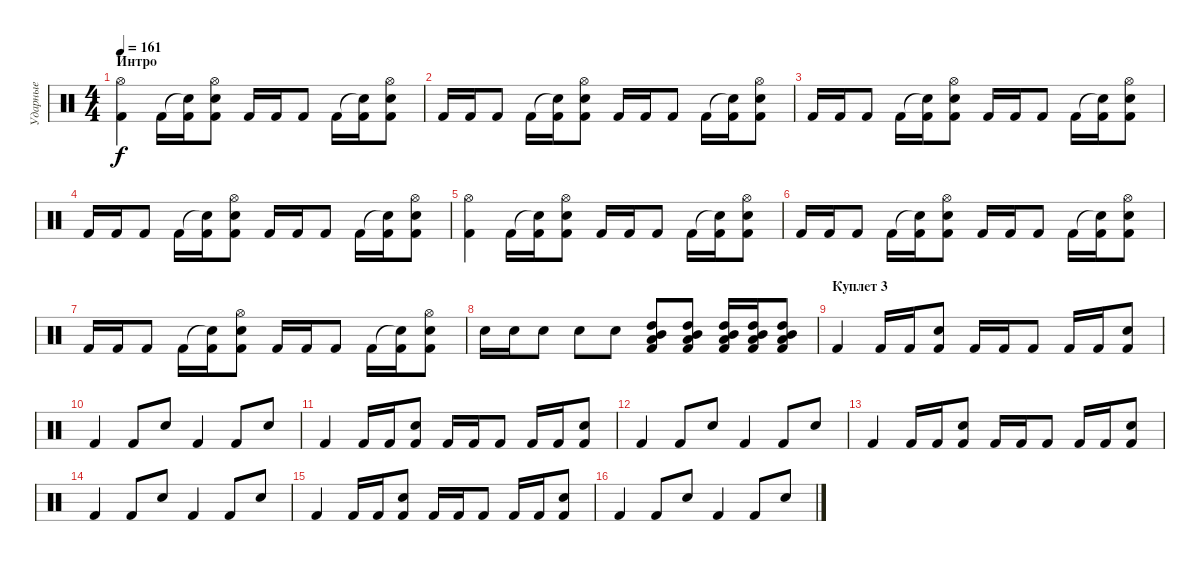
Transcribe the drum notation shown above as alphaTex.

\track ("Ударные" "Ударные") {instrument percussion}
\staff {score}
\articulation defaults
\ts (4 4)
\section ("" "Интро")
\tempo 161
\clef neutral
\ks c
("Hi-Hat (open)" "Kick (hit) 2").4{dy f} "Kick (hit) 2".16 ("Snare (hit)"{t} "Kick (hit) 2").16 ("Hi-Hat (open)" "Snare (hit) 2" "Kick (hit) 2").8 "Kick (hit) 2".16 "Kick (hit) 2".16 "Kick (hit) 2".8 "Kick (hit) 2".16 ("Snare (hit)"{t} "Kick (hit) 2").16 ("Hi-Hat (open)" "Snare (hit) 2" "Kick (hit) 2").8 |
"Kick (hit) 2".16 "Kick (hit) 2".16 "Kick (hit) 2".8 "Kick (hit) 2".16 ("Snare (hit)"{t} "Kick (hit) 2").16 ("Hi-Hat (open)" "Snare (hit) 2" "Kick (hit) 2").8 "Kick (hit) 2".16 "Kick (hit) 2".16 "Kick (hit) 2".8 "Kick (hit) 2".16 ("Snare (hit)"{t} "Kick (hit) 2").16 ("Hi-Hat (open)" "Snare (hit) 2" "Kick (hit) 2").8 |
"Kick (hit) 2".16 "Kick (hit) 2".16 "Kick (hit) 2".8 "Kick (hit) 2".16 ("Snare (hit)"{t} "Kick (hit) 2").16 ("Hi-Hat (open)" "Snare (hit) 2" "Kick (hit) 2").8 "Kick (hit) 2".16 "Kick (hit) 2".16 "Kick (hit) 2".8 "Kick (hit) 2".16 ("Snare (hit)"{t} "Kick (hit) 2").16 ("Hi-Hat (open)" "Snare (hit) 2" "Kick (hit) 2").8 |
"Kick (hit) 2".16 "Kick (hit) 2".16 "Kick (hit) 2".8 "Kick (hit) 2".16 ("Snare (hit)"{t} "Kick (hit) 2").16 ("Hi-Hat (open)" "Snare (hit) 2" "Kick (hit) 2").8 "Kick (hit) 2".16 "Kick (hit) 2".16 "Kick (hit) 2".8 "Kick (hit) 2".16 ("Snare (hit)"{t} "Kick (hit) 2").16 ("Hi-Hat (open)" "Snare (hit) 2" "Kick (hit) 2").8 |
("Hi-Hat (open)" "Kick (hit) 2").4 "Kick (hit) 2".16 ("Snare (hit)"{t} "Kick (hit) 2").16 ("Hi-Hat (open)" "Snare (hit) 2" "Kick (hit) 2").8 "Kick (hit) 2".16 "Kick (hit) 2".16 "Kick (hit) 2".8 "Kick (hit) 2".16 ("Snare (hit)"{t} "Kick (hit) 2").16 ("Hi-Hat (open)" "Snare (hit) 2" "Kick (hit) 2").8 |
"Kick (hit) 2".16 "Kick (hit) 2".16 "Kick (hit) 2".8 "Kick (hit) 2".16 ("Snare (hit)"{t} "Kick (hit) 2").16 ("Hi-Hat (open)" "Snare (hit) 2" "Kick (hit) 2").8 "Kick (hit) 2".16 "Kick (hit) 2".16 "Kick (hit) 2".8 "Kick (hit) 2".16 ("Snare (hit)"{t} "Kick (hit) 2").16 ("Hi-Hat (open)" "Snare (hit) 2" "Kick (hit) 2").8 |
"Kick (hit) 2".16 "Kick (hit) 2".16 "Kick (hit) 2".8 "Kick (hit) 2".16 ("Snare (hit)"{t} "Kick (hit) 2").16 ("Hi-Hat (open)" "Snare (hit) 2" "Kick (hit) 2").8 "Kick (hit) 2".16 "Kick (hit) 2".16 "Kick (hit) 2".8 "Kick (hit) 2".16 ("Snare (hit)"{t} "Kick (hit) 2").16 ("Hi-Hat (open)" "Snare (hit) 2" "Kick (hit) 2").8 |
"Snare (hit) 2".16 "Snare (hit) 2".16 "Snare (hit) 2".8 "Snare (hit) 2".8 "Snare (hit) 2".8 ("Mid Tom (hit)" "Low Tom (hit)" "Kick (hit) 2" "High Tom (hit)").8 ("Mid Tom (hit)" "Low Tom (hit)" "Kick (hit) 2" "High Tom (hit)").8 ("Mid Tom (hit)" "Low Tom (hit)" "Kick (hit) 2" "High Tom (hit)").16 ("Mid Tom (hit)" "Low Tom (hit)" "Kick (hit) 2" "High Tom (hit)").16 ("Mid Tom (hit)" "Low Tom (hit)" "Kick (hit) 2" "High Tom (hit)").8 |
\section ("" "Куплет 3")
"Kick (hit) 2".4 "Kick (hit) 2".16 "Kick (hit) 2".16 ("Snare (hit) 2" "Kick (hit) 2").8 "Kick (hit) 2".16 "Kick (hit) 2".16 "Kick (hit) 2".8 "Kick (hit) 2".16 "Kick (hit) 2".16 ("Snare (hit) 2" "Kick (hit) 2").8 |
"Kick (hit) 2".4 "Kick (hit) 2".8 "Snare (hit) 2".8 "Kick (hit) 2".4 "Kick (hit) 2".8 "Snare (hit) 2".8 |
"Kick (hit) 2".4 "Kick (hit) 2".16 "Kick (hit) 2".16 ("Snare (hit) 2" "Kick (hit) 2").8 "Kick (hit) 2".16 "Kick (hit) 2".16 "Kick (hit) 2".8 "Kick (hit) 2".16 "Kick (hit) 2".16 ("Snare (hit) 2" "Kick (hit) 2").8 |
"Kick (hit) 2".4 "Kick (hit) 2".8 "Snare (hit) 2".8 "Kick (hit) 2".4 "Kick (hit) 2".8 "Snare (hit) 2".8 |
"Kick (hit) 2".4 "Kick (hit) 2".16 "Kick (hit) 2".16 ("Snare (hit) 2" "Kick (hit) 2").8 "Kick (hit) 2".16 "Kick (hit) 2".16 "Kick (hit) 2".8 "Kick (hit) 2".16 "Kick (hit) 2".16 ("Snare (hit) 2" "Kick (hit) 2").8 |
"Kick (hit) 2".4 "Kick (hit) 2".8 "Snare (hit) 2".8 "Kick (hit) 2".4 "Kick (hit) 2".8 "Snare (hit) 2".8 |
"Kick (hit) 2".4 "Kick (hit) 2".16 "Kick (hit) 2".16 ("Snare (hit) 2" "Kick (hit) 2").8 "Kick (hit) 2".16 "Kick (hit) 2".16 "Kick (hit) 2".8 "Kick (hit) 2".16 "Kick (hit) 2".16 ("Snare (hit) 2" "Kick (hit) 2").8 |
"Kick (hit) 2".4 "Kick (hit) 2".8 "Snare (hit) 2".8 "Kick (hit) 2".4 "Kick (hit) 2".8 "Snare (hit) 2".8
